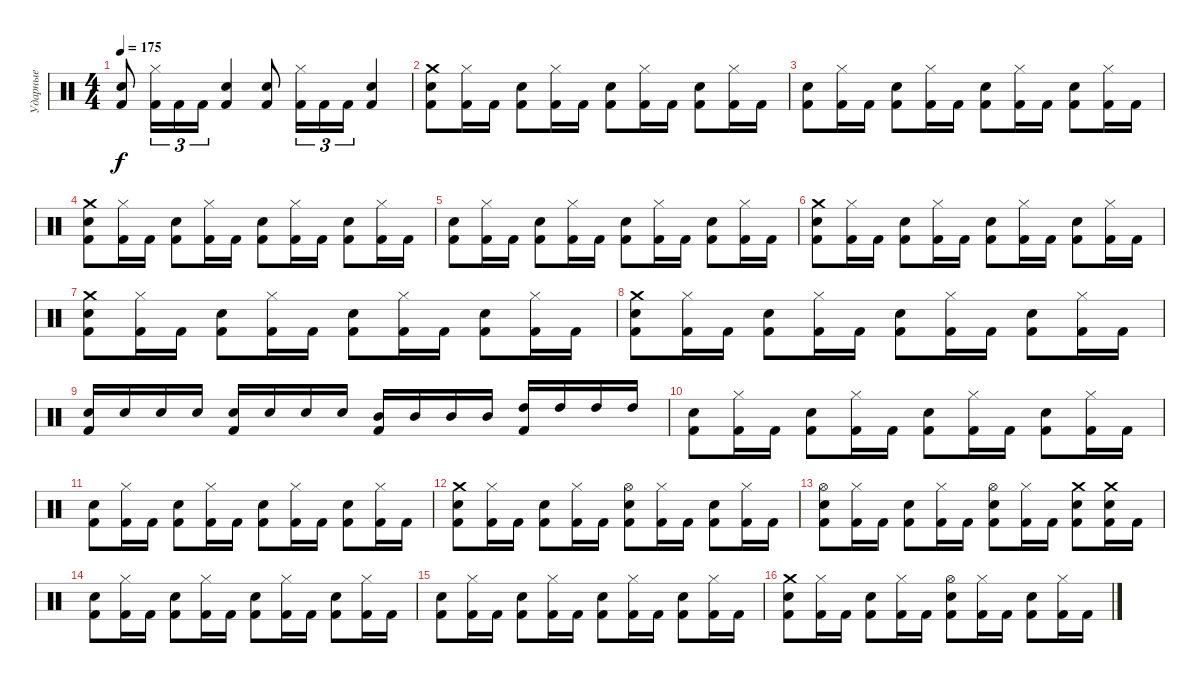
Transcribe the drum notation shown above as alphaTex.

\track ("Ударные" "Ударные") {instrument percussion}
\staff {score}
\articulation defaults
\ts (4 4)
\tempo 175
\clef neutral
\ks c
("Kick (hit) 2" "Snare (hit) 2").8{dy f} ("Kick (hit) 2" "Hi-Hat (closed)").16{tu (3 2)} "Kick (hit) 2".16{tu (3 2)} "Kick (hit) 2".16{tu (3 2)} ("Kick (hit) 2" "Snare (hit) 2").4 ("Kick (hit) 2" "Snare (hit) 2").8 ("Kick (hit) 2" "Hi-Hat (closed)").16{tu (3 2)} "Kick (hit) 2".16{tu (3 2)} "Kick (hit) 2".16{tu (3 2)} ("Kick (hit) 2" "Snare (hit) 2").4 |
("Kick (hit) 2" "Snare (hit) 2" "Crash medium (hit)").8 ("Kick (hit) 2" "Hi-Hat (closed)").16 "Kick (hit) 2".16 ("Kick (hit) 2" "Snare (hit) 2").8 ("Kick (hit) 2" "Hi-Hat (closed)").16 "Kick (hit) 2".16 ("Kick (hit) 2" "Snare (hit) 2").8 ("Kick (hit) 2" "Hi-Hat (closed)").16 "Kick (hit) 2".16 ("Kick (hit) 2" "Snare (hit) 2").8 ("Kick (hit) 2" "Hi-Hat (closed)").16 "Kick (hit) 2".16 |
("Kick (hit) 2" "Snare (hit) 2").8 ("Kick (hit) 2" "Hi-Hat (closed)").16 "Kick (hit) 2".16 ("Kick (hit) 2" "Snare (hit) 2").8 ("Kick (hit) 2" "Hi-Hat (closed)").16 "Kick (hit) 2".16 ("Kick (hit) 2" "Snare (hit) 2").8 ("Kick (hit) 2" "Hi-Hat (closed)").16 "Kick (hit) 2".16 ("Kick (hit) 2" "Snare (hit) 2").8 ("Kick (hit) 2" "Hi-Hat (closed)").16 "Kick (hit) 2".16 |
("Kick (hit) 2" "Crash medium (hit)" "Snare (hit) 2").8 ("Kick (hit) 2" "Hi-Hat (closed)").16 "Kick (hit) 2".16 ("Kick (hit) 2" "Snare (hit) 2").8 ("Kick (hit) 2" "Hi-Hat (closed)").16 "Kick (hit) 2".16 ("Kick (hit) 2" "Snare (hit) 2").8 ("Kick (hit) 2" "Hi-Hat (closed)").16 "Kick (hit) 2".16 ("Kick (hit) 2" "Snare (hit) 2").8 ("Kick (hit) 2" "Hi-Hat (closed)").16 "Kick (hit) 2".16 |
("Kick (hit) 2" "Snare (hit) 2").8 ("Kick (hit) 2" "Hi-Hat (closed)").16 "Kick (hit) 2".16 ("Kick (hit) 2" "Snare (hit) 2").8 ("Kick (hit) 2" "Hi-Hat (closed)").16 "Kick (hit) 2".16 ("Kick (hit) 2" "Snare (hit) 2").8 ("Kick (hit) 2" "Hi-Hat (closed)").16 "Kick (hit) 2".16 ("Kick (hit) 2" "Snare (hit) 2").8 ("Kick (hit) 2" "Hi-Hat (closed)").16 "Kick (hit) 2".16 |
("Kick (hit) 2" "Crash medium (hit)" "Snare (hit) 2").8 ("Kick (hit) 2" "Hi-Hat (closed)").16 "Kick (hit) 2".16 ("Kick (hit) 2" "Snare (hit) 2").8 ("Kick (hit) 2" "Hi-Hat (closed)").16 "Kick (hit) 2".16 ("Kick (hit) 2" "Snare (hit) 2").8 ("Kick (hit) 2" "Hi-Hat (closed)").16 "Kick (hit) 2".16 ("Kick (hit) 2" "Snare (hit) 2").8 ("Kick (hit) 2" "Hi-Hat (closed)").16 "Kick (hit) 2".16 |
("Kick (hit) 2" "Snare (hit) 2" "Crash medium (hit)").8 ("Kick (hit) 2" "Hi-Hat (closed)").16 "Kick (hit) 2".16 ("Kick (hit) 2" "Snare (hit) 2").8 ("Kick (hit) 2" "Hi-Hat (closed)").16 "Kick (hit) 2".16 ("Kick (hit) 2" "Snare (hit) 2").8 ("Kick (hit) 2" "Hi-Hat (closed)").16 "Kick (hit) 2".16 ("Kick (hit) 2" "Snare (hit) 2").8 ("Kick (hit) 2" "Hi-Hat (closed)").16 "Kick (hit) 2".16 |
("Kick (hit) 2" "Snare (hit) 2" "Crash medium (hit)").8 ("Kick (hit) 2" "Hi-Hat (closed)").16 "Kick (hit) 2".16 ("Kick (hit) 2" "Snare (hit) 2").8 ("Kick (hit) 2" "Hi-Hat (closed)").16 "Kick (hit) 2".16 ("Kick (hit) 2" "Snare (hit) 2").8 ("Kick (hit) 2" "Hi-Hat (closed)").16 "Kick (hit) 2".16 ("Kick (hit) 2" "Snare (hit) 2").8 ("Kick (hit) 2" "Hi-Hat (closed)").16 "Kick (hit) 2".16 |
("Kick (hit) 2" "Snare (hit) 2").16 "Snare (hit) 2".16 "Snare (hit) 2".16 "Snare (hit) 2".16 ("Kick (hit) 2" "Electric Snare (hit)").16 "Electric Snare (hit)".16 "Electric Snare (hit)".16 "Electric Snare (hit)".16 ("Kick (hit) 2" "Mid Tom (hit)").16 "Mid Tom (hit)".16 "Mid Tom (hit)".16 "Mid Tom (hit)".16 ("Kick (hit) 2" "High Tom (hit)").16 "High Tom (hit)".16 "High Tom (hit)".16 "High Tom (hit)".16 |
("Kick (hit) 2" "Snare (hit) 2").8 ("Kick (hit) 2" "Hi-Hat (closed)").16 "Kick (hit) 2".16 ("Kick (hit) 2" "Snare (hit) 2").8 ("Kick (hit) 2" "Hi-Hat (closed)").16 "Kick (hit) 2".16 ("Kick (hit) 2" "Snare (hit) 2").8 ("Kick (hit) 2" "Hi-Hat (closed)").16 "Kick (hit) 2".16 ("Kick (hit) 2" "Snare (hit) 2").8 ("Kick (hit) 2" "Hi-Hat (closed)").16 "Kick (hit) 2".16 |
("Kick (hit) 2" "Snare (hit) 2").8 ("Kick (hit) 2" "Hi-Hat (closed)").16 "Kick (hit) 2".16 ("Kick (hit) 2" "Snare (hit) 2").8 ("Kick (hit) 2" "Hi-Hat (closed)").16 "Kick (hit) 2".16 ("Kick (hit) 2" "Snare (hit) 2").8 ("Kick (hit) 2" "Hi-Hat (closed)").16 "Kick (hit) 2".16 ("Kick (hit) 2" "Snare (hit) 2").8 ("Kick (hit) 2" "Hi-Hat (closed)").16 "Kick (hit) 2".16 |
("Kick (hit) 2" "Snare (hit) 2" "Crash medium (hit)").8 ("Kick (hit) 2" "Hi-Hat (closed)").16 "Kick (hit) 2".16 ("Kick (hit) 2" "Snare (hit) 2").8 ("Kick (hit) 2" "Hi-Hat (closed)").16 "Kick (hit) 2".16 ("Kick (hit) 2" "Snare (hit) 2" "Hi-Hat (open)").8 ("Kick (hit) 2" "Hi-Hat (closed)").16 "Kick (hit) 2".16 ("Kick (hit) 2" "Snare (hit) 2").8 ("Kick (hit) 2" "Hi-Hat (closed)").16 "Kick (hit) 2".16 |
("Kick (hit) 2" "Snare (hit) 2" "Hi-Hat (open)").8 ("Kick (hit) 2" "Hi-Hat (closed)").16 "Kick (hit) 2".16 ("Kick (hit) 2" "Snare (hit) 2").8 ("Kick (hit) 2" "Hi-Hat (closed)").16 "Kick (hit) 2".16 ("Kick (hit) 2" "Snare (hit) 2" "Hi-Hat (open)").8 ("Kick (hit) 2" "Hi-Hat (closed)").16 "Kick (hit) 2".16 ("Kick (hit) 2" "Snare (hit) 2" "Crash medium (hit)").8 ("Kick (hit) 2" "Snare (hit) 2" "Crash medium (hit)").16 "Kick (hit) 2".16 |
("Kick (hit) 2" "Snare (hit) 2").8 ("Kick (hit) 2" "Hi-Hat (closed)").16 "Kick (hit) 2".16 ("Kick (hit) 2" "Snare (hit) 2").8 ("Kick (hit) 2" "Hi-Hat (closed)").16 "Kick (hit) 2".16 ("Kick (hit) 2" "Snare (hit) 2").8 ("Kick (hit) 2" "Hi-Hat (closed)").16 "Kick (hit) 2".16 ("Kick (hit) 2" "Snare (hit) 2").8 ("Kick (hit) 2" "Hi-Hat (closed)").16 "Kick (hit) 2".16 |
("Kick (hit) 2" "Snare (hit) 2").8 ("Kick (hit) 2" "Hi-Hat (closed)").16 "Kick (hit) 2".16 ("Kick (hit) 2" "Snare (hit) 2").8 ("Kick (hit) 2" "Hi-Hat (closed)").16 "Kick (hit) 2".16 ("Kick (hit) 2" "Snare (hit) 2").8 ("Kick (hit) 2" "Hi-Hat (closed)").16 "Kick (hit) 2".16 ("Kick (hit) 2" "Snare (hit) 2").8 ("Kick (hit) 2" "Hi-Hat (closed)").16 "Kick (hit) 2".16 |
("Kick (hit) 2" "Snare (hit) 2" "Crash medium (hit)").8 ("Kick (hit) 2" "Hi-Hat (closed)").16 "Kick (hit) 2".16 ("Kick (hit) 2" "Snare (hit) 2").8 ("Kick (hit) 2" "Hi-Hat (closed)").16 "Kick (hit) 2".16 ("Kick (hit) 2" "Snare (hit) 2" "Hi-Hat (open)").8 ("Kick (hit) 2" "Hi-Hat (closed)").16 "Kick (hit) 2".16 ("Kick (hit) 2" "Snare (hit) 2").8 ("Kick (hit) 2" "Hi-Hat (closed)").16 "Kick (hit) 2".16
